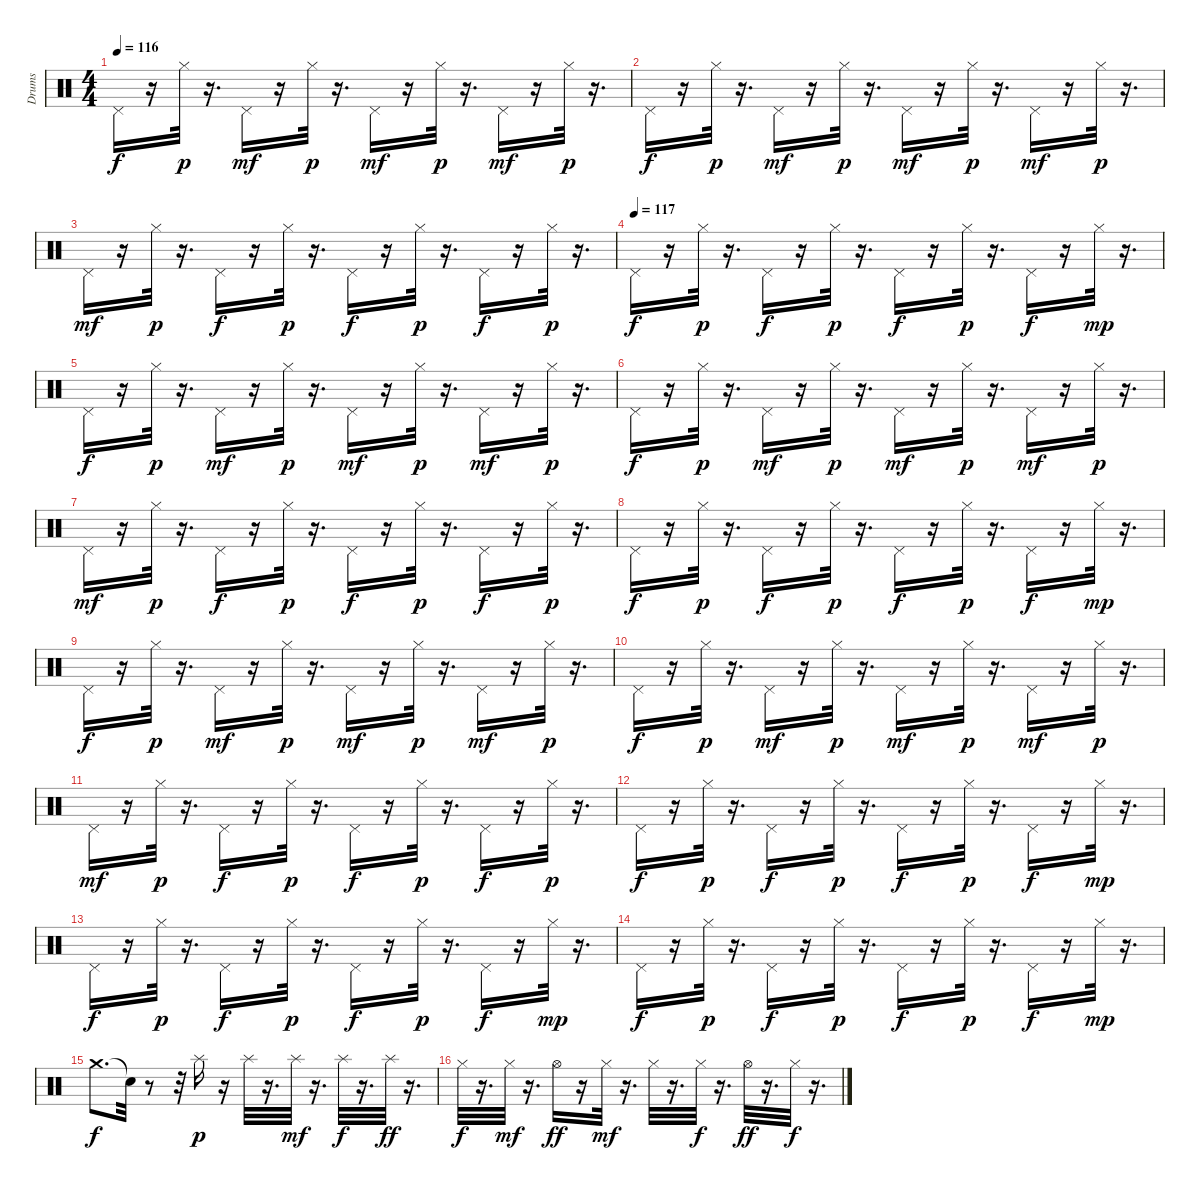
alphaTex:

\track ("Drums" "Drums") {instrument percussion}
\staff {score}
\articulation defaults
\ts (4 4)
\tempo 116
\clef neutral
\ks c "Pedal Hi-Hat (hit)".16{dy f}
r.16 "Hi-Hat (closed)".32{dy p} r.16{d} "Pedal Hi-Hat (hit)".16{dy mf} r.16 "Hi-Hat (closed)".32{dy p} r.16{d} "Pedal Hi-Hat (hit)".16{dy mf} r.16 "Hi-Hat (closed)".32{dy p} r.16{d} "Pedal Hi-Hat (hit)".16{dy mf} r.16 "Hi-Hat (closed)".32{dy p} r.16{d} |
"Pedal Hi-Hat (hit)".16{dy f} r.16 "Hi-Hat (closed)".32{dy p} r.16{d} "Pedal Hi-Hat (hit)".16{dy mf} r.16 "Hi-Hat (closed)".32{dy p} r.16{d} "Pedal Hi-Hat (hit)".16{dy mf} r.16 "Hi-Hat (closed)".32{dy p} r.16{d} "Pedal Hi-Hat (hit)".16{dy mf} r.16 "Hi-Hat (closed)".32{dy p} r.16{d} |
"Pedal Hi-Hat (hit)".16{dy mf} r.16 "Hi-Hat (closed)".32{dy p} r.16{d} "Pedal Hi-Hat (hit)".16{dy f} r.16 "Hi-Hat (closed)".32{dy p} r.16{d} "Pedal Hi-Hat (hit)".16{dy f} r.16 "Hi-Hat (closed)".32{dy p} r.16{d} "Pedal Hi-Hat (hit)".16{dy f} r.16 "Hi-Hat (closed)".32{dy p} r.16{d} |
\tempo (117)
"Pedal Hi-Hat (hit)".16{dy f} r.16 "Hi-Hat (closed)".32{dy p} r.16{d} "Pedal Hi-Hat (hit)".16{dy f} r.16 "Hi-Hat (closed)".32{dy p} r.16{d} "Pedal Hi-Hat (hit)".16{dy f} r.16 "Hi-Hat (closed)".32{dy p} r.16{d} "Pedal Hi-Hat (hit)".16{dy f} r.16 "Hi-Hat (closed)".32{dy mp} r.16{d} |
"Pedal Hi-Hat (hit)".16{dy f} r.16 "Hi-Hat (closed)".32{dy p} r.16{d} "Pedal Hi-Hat (hit)".16{dy mf} r.16 "Hi-Hat (closed)".32{dy p} r.16{d} "Pedal Hi-Hat (hit)".16{dy mf} r.16 "Hi-Hat (closed)".32{dy p} r.16{d} "Pedal Hi-Hat (hit)".16{dy mf} r.16 "Hi-Hat (closed)".32{dy p} r.16{d} |
"Pedal Hi-Hat (hit)".16{dy f} r.16 "Hi-Hat (closed)".32{dy p} r.16{d} "Pedal Hi-Hat (hit)".16{dy mf} r.16 "Hi-Hat (closed)".32{dy p} r.16{d} "Pedal Hi-Hat (hit)".16{dy mf} r.16 "Hi-Hat (closed)".32{dy p} r.16{d} "Pedal Hi-Hat (hit)".16{dy mf} r.16 "Hi-Hat (closed)".32{dy p} r.16{d} |
"Pedal Hi-Hat (hit)".16{dy mf} r.16 "Hi-Hat (closed)".32{dy p} r.16{d} "Pedal Hi-Hat (hit)".16{dy f} r.16 "Hi-Hat (closed)".32{dy p} r.16{d} "Pedal Hi-Hat (hit)".16{dy f} r.16 "Hi-Hat (closed)".32{dy p} r.16{d} "Pedal Hi-Hat (hit)".16{dy f} r.16 "Hi-Hat (closed)".32{dy p} r.16{d} |
"Pedal Hi-Hat (hit)".16{dy f} r.16 "Hi-Hat (closed)".32{dy p} r.16{d} "Pedal Hi-Hat (hit)".16{dy f} r.16 "Hi-Hat (closed)".32{dy p} r.16{d} "Pedal Hi-Hat (hit)".16{dy f} r.16 "Hi-Hat (closed)".32{dy p} r.16{d} "Pedal Hi-Hat (hit)".16{dy f} r.16 "Hi-Hat (closed)".32{dy mp} r.16{d} |
"Pedal Hi-Hat (hit)".16{dy f} r.16 "Hi-Hat (closed)".32{dy p} r.16{d} "Pedal Hi-Hat (hit)".16{dy mf} r.16 "Hi-Hat (closed)".32{dy p} r.16{d} "Pedal Hi-Hat (hit)".16{dy mf} r.16 "Hi-Hat (closed)".32{dy p} r.16{d} "Pedal Hi-Hat (hit)".16{dy mf} r.16 "Hi-Hat (closed)".32{dy p} r.16{d} |
"Pedal Hi-Hat (hit)".16{dy f} r.16 "Hi-Hat (closed)".32{dy p} r.16{d} "Pedal Hi-Hat (hit)".16{dy mf} r.16 "Hi-Hat (closed)".32{dy p} r.16{d} "Pedal Hi-Hat (hit)".16{dy mf} r.16 "Hi-Hat (closed)".32{dy p} r.16{d} "Pedal Hi-Hat (hit)".16{dy mf} r.16 "Hi-Hat (closed)".32{dy p} r.16{d} |
"Pedal Hi-Hat (hit)".16{dy mf} r.16 "Hi-Hat (closed)".32{dy p} r.16{d} "Pedal Hi-Hat (hit)".16{dy f} r.16 "Hi-Hat (closed)".32{dy p} r.16{d} "Pedal Hi-Hat (hit)".16{dy f} r.16 "Hi-Hat (closed)".32{dy p} r.16{d} "Pedal Hi-Hat (hit)".16{dy f} r.16 "Hi-Hat (closed)".32{dy p} r.16{d} |
"Pedal Hi-Hat (hit)".16{dy f} r.16 "Hi-Hat (closed)".32{dy p} r.16{d} "Pedal Hi-Hat (hit)".16{dy f} r.16 "Hi-Hat (closed)".32{dy p} r.16{d} "Pedal Hi-Hat (hit)".16{dy f} r.16 "Hi-Hat (closed)".32{dy p} r.16{d} "Pedal Hi-Hat (hit)".16{dy f} r.16 "Hi-Hat (closed)".32{dy mp} r.16{d} |
"Pedal Hi-Hat (hit)".16{dy f} r.16 "Hi-Hat (closed)".32{dy p} r.16{d} "Pedal Hi-Hat (hit)".16{dy f} r.16 "Hi-Hat (closed)".32{dy p} r.16{d} "Pedal Hi-Hat (hit)".16{dy f} r.16 "Hi-Hat (closed)".32{dy p} r.16{d} "Pedal Hi-Hat (hit)".16{dy f} r.16 "Hi-Hat (closed)".32{dy mp} r.16{d} |
"Pedal Hi-Hat (hit)".16{dy f} r.16 "Hi-Hat (closed)".32{dy p} r.16{d} "Pedal Hi-Hat (hit)".16{dy f} r.16 "Hi-Hat (closed)".32{dy p} r.16{d} "Pedal Hi-Hat (hit)".16{dy f} r.16 "Hi-Hat (closed)".32{dy p} r.16{d} "Pedal Hi-Hat (hit)".16{dy f} r.16 "Hi-Hat (closed)".32{dy mp} r.16{d} |
"Crash medium (hit)".8{d dy f} "Snare (hit)"{t}.32 r.8 r.32 "Splash (hit)".16{dy p} r.16 "Splash (hit)".32 r.16{d} "Splash (hit)".32{dy mf} r.16{d} "Splash (hit)".32{dy f} r.16{d} "Splash (hit)".32{dy ff} r.16{d} |
"Hi-Hat (closed)".32{dy f} r.16{d} "Hi-Hat (closed)".32{dy mf} r.16{d} "Hi-Hat (open)".16{dy ff} r.16 "Hi-Hat (closed)".32{dy mf} r.16{d} "Hi-Hat (closed)".32 r.16{d} "Hi-Hat (closed)".32{dy f} r.16{d} "Hi-Hat (open)".32{dy ff} r.16{d} "Hi-Hat (closed)".32{dy f} r.16{d}
